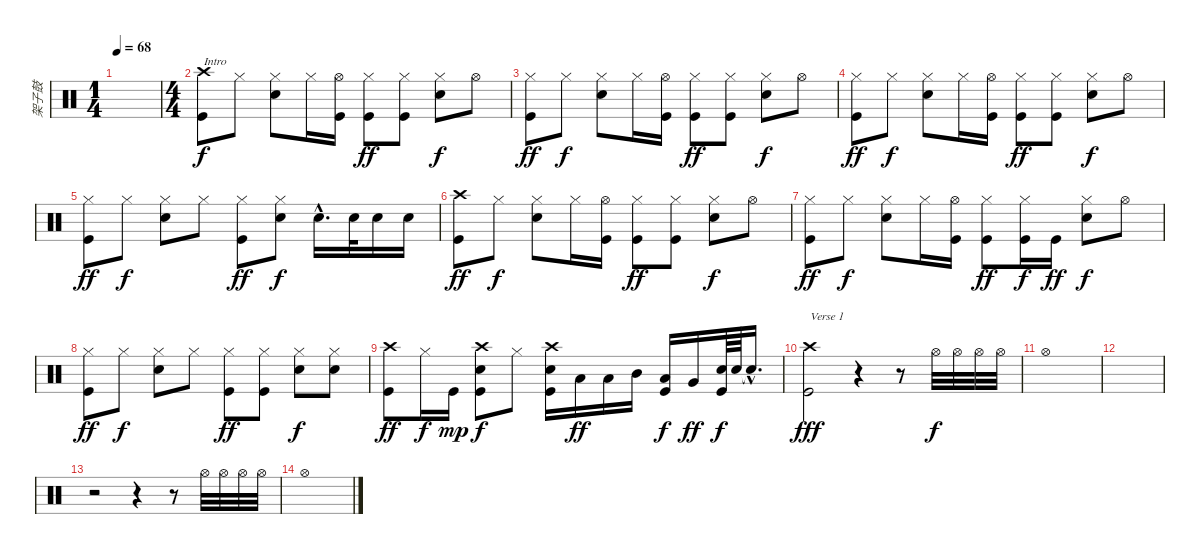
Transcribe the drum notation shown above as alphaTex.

\track ("架子鼓" "架子鼓") {instrument percussion}
\staff {score}
\articulation defaults
\ts (1 4)
\tempo 68
\clef neutral
\ks c
|
\ts (4 4)
("Crash high (hit)" "Kick (hit)").8{txt "Intro"} "Hi-Hat (closed)".8{dy f} ("Hi-Hat (closed)" "Snare (hit) 2").8 "Hi-Hat (closed)".16 ("Hi-Hat (open)" "Kick (hit)").16 ("Hi-Hat (closed)" "Kick (hit)").8{dy ff} ("Hi-Hat (closed)" "Kick (hit)").8 ("Hi-Hat (closed)" "Snare (hit) 2").8{dy f} "Hi-Hat (open)".8 |
("Hi-Hat (closed)" "Kick (hit)").8{dy ff} "Hi-Hat (closed)".8{dy f} ("Hi-Hat (closed)" "Snare (hit) 2").8 "Hi-Hat (closed)".16 ("Hi-Hat (open)" "Kick (hit)").16 ("Hi-Hat (closed)" "Kick (hit)").8{dy ff} ("Hi-Hat (closed)" "Kick (hit)").8 ("Hi-Hat (closed)" "Snare (hit) 2").8{dy f} "Hi-Hat (open)".8 |
("Hi-Hat (closed)" "Kick (hit)").8{dy ff} "Hi-Hat (closed)".8{dy f} ("Hi-Hat (closed)" "Snare (hit) 2").8 "Hi-Hat (closed)".16 ("Hi-Hat (open)" "Kick (hit)").16 ("Hi-Hat (closed)" "Kick (hit)").8{dy ff} ("Hi-Hat (closed)" "Kick (hit)").8 ("Hi-Hat (closed)" "Snare (hit) 2").8{dy f} "Hi-Hat (open)".8 |
("Hi-Hat (closed)" "Kick (hit)").8{dy ff} "Hi-Hat (closed)".8{dy f} ("Hi-Hat (closed)" "Snare (hit) 2").8 "Hi-Hat (closed)".8 ("Hi-Hat (closed)" "Kick (hit)").8{dy ff} ("Hi-Hat (closed)" "Snare (hit) 2").8{dy f} "Snare (hit) 2"{hac}.16{d} "Snare (hit) 2".32 "Snare (hit) 2".16 "Snare (hit) 2".16 |
("Crash high (hit)" "Kick (hit)").8{dy ff} "Hi-Hat (closed)".8{dy f} ("Hi-Hat (closed)" "Snare (hit) 2").8 "Hi-Hat (closed)".16 ("Hi-Hat (open)" "Kick (hit)").16 ("Hi-Hat (closed)" "Kick (hit)").8{dy ff} ("Hi-Hat (closed)" "Kick (hit)").8 ("Hi-Hat (closed)" "Snare (hit) 2").8{dy f} "Hi-Hat (open)".8 |
("Hi-Hat (closed)" "Kick (hit)").8{dy ff} "Hi-Hat (closed)".8{dy f} ("Hi-Hat (closed)" "Snare (hit) 2").8 "Hi-Hat (closed)".16 ("Hi-Hat (open)" "Kick (hit)").16 ("Hi-Hat (closed)" "Kick (hit)").8{dy ff} ("Hi-Hat (closed)" "Kick (hit)").16{dy f} "Kick (hit)".16{dy ff} ("Hi-Hat (closed)" "Snare (hit) 2").8{dy f} "Hi-Hat (open)".8 |
("Hi-Hat (closed)" "Kick (hit)").8{dy ff} "Hi-Hat (closed)".8{dy f} ("Hi-Hat (closed)" "Snare (hit) 2").8 "Hi-Hat (closed)".8 ("Hi-Hat (closed)" "Kick (hit)").8{dy ff} ("Hi-Hat (closed)" "Kick (hit)").8 ("Hi-Hat (closed)" "Snare (hit) 2").8{dy f} ("Hi-Hat (closed)" "Snare (hit) 2").8 |
("Crash high (hit)" "Kick (hit)").8{dy ff} "Hi-Hat (closed)".16{dy f} "Kick (hit)".16{dy mp} ("Crash high (hit)" "Snare (hit) 2" "Kick (hit)").8{dy f} "Hi-Hat (closed)".8 ("Crash high (hit)" "Snare (hit) 2" "Kick (hit)").16 "Low Floor Tom (hit)".16{dy ff} "Low Tom (hit)".16 "Mid Tom (hit)".16 ("Low Tom (hit)" "Kick (hit)").16{dy f} "Very Low Tom (hit)".16{dy ff} ("Snare (hit) 2" "Kick (hit)").64{dy f} "Snare (hit) 2".64 "Snare (hit)"{hac t}.16{d} |
("Crash high (hit)" "Kick (hit)").2{txt "Verse 1" dy fff} r.4 r.8 "Hi-Hat (open)".32{dy f} "Hi-Hat (open)".32 "Hi-Hat (open)".32 "Hi-Hat (open)".32 |
"Hi-Hat (open)".1 |
|
r.2 r.4 r.8 "Hi-Hat (open)".32 "Hi-Hat (open)".32 "Hi-Hat (open)".32 "Hi-Hat (open)".32 |
"Hi-Hat (open)".1
